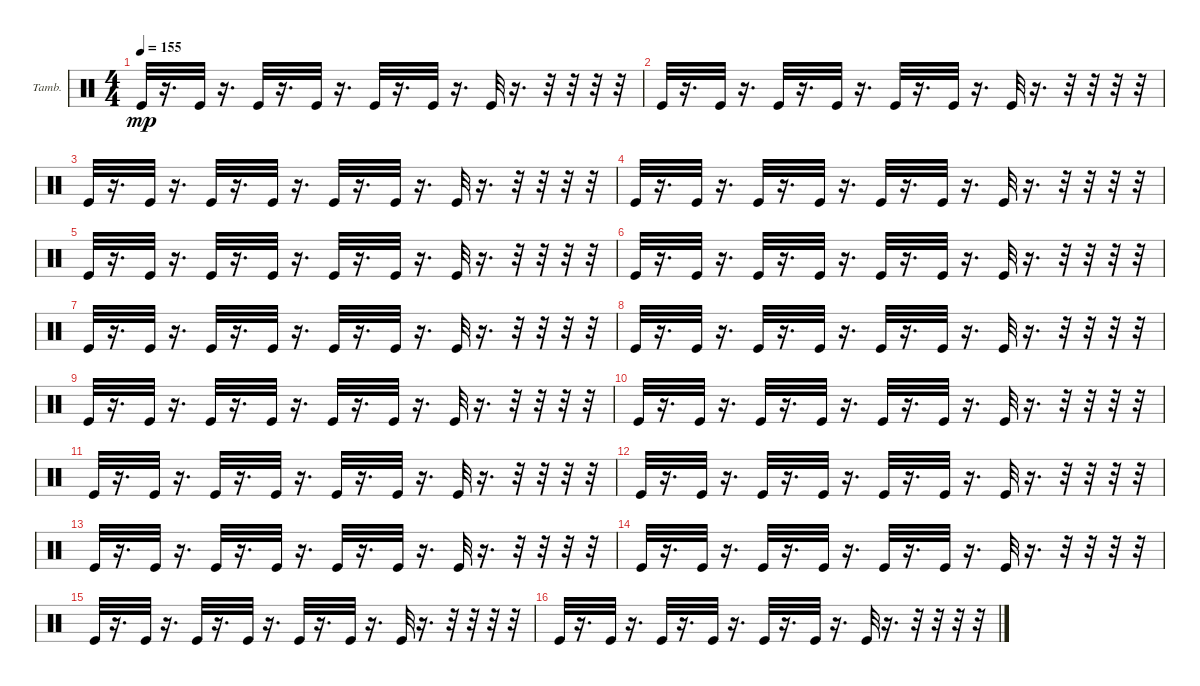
\bracketExtendMode groupsimilarinstruments
\firstSystemTrackNameOrientation horizontal
\otherSystemsTrackNameOrientation horizontal
\track ("Е. Кулаков" "Tamb.") {instrument percussion}
\staff {score}
\articulation defaults
\ts (4 4)
\tempo 155
\clef neutral
\ks c "Kick (hit)".32{dy mp}
r.16{d} "Kick (hit)".32 r.16{d} "Kick (hit)".32 r.16{d} "Kick (hit)".32 r.16{d} "Kick (hit)".32 r.16{d} "Kick (hit)".32 r.16{d} "Kick (hit)".32 r.16{d} r.32 r.32 r.32 r.32 |
"Kick (hit)".32 r.16{d} "Kick (hit)".32 r.16{d} "Kick (hit)".32 r.16{d} "Kick (hit)".32 r.16{d} "Kick (hit)".32 r.16{d} "Kick (hit)".32 r.16{d} "Kick (hit)".32 r.16{d} r.32 r.32 r.32 r.32 |
"Kick (hit)".32 r.16{d} "Kick (hit)".32 r.16{d} "Kick (hit)".32 r.16{d} "Kick (hit)".32 r.16{d} "Kick (hit)".32 r.16{d} "Kick (hit)".32 r.16{d} "Kick (hit)".32 r.16{d} r.32 r.32 r.32 r.32 |
"Kick (hit)".32 r.16{d} "Kick (hit)".32 r.16{d} "Kick (hit)".32 r.16{d} "Kick (hit)".32 r.16{d} "Kick (hit)".32 r.16{d} "Kick (hit)".32 r.16{d} "Kick (hit)".32 r.16{d} r.32 r.32 r.32 r.32 |
"Kick (hit)".32 r.16{d} "Kick (hit)".32 r.16{d} "Kick (hit)".32 r.16{d} "Kick (hit)".32 r.16{d} "Kick (hit)".32 r.16{d} "Kick (hit)".32 r.16{d} "Kick (hit)".32 r.16{d} r.32 r.32 r.32 r.32 |
"Kick (hit)".32 r.16{d} "Kick (hit)".32 r.16{d} "Kick (hit)".32 r.16{d} "Kick (hit)".32 r.16{d} "Kick (hit)".32 r.16{d} "Kick (hit)".32 r.16{d} "Kick (hit)".32 r.16{d} r.32 r.32 r.32 r.32 |
"Kick (hit)".32 r.16{d} "Kick (hit)".32 r.16{d} "Kick (hit)".32 r.16{d} "Kick (hit)".32 r.16{d} "Kick (hit)".32 r.16{d} "Kick (hit)".32 r.16{d} "Kick (hit)".32 r.16{d} r.32 r.32 r.32 r.32 |
"Kick (hit)".32 r.16{d} "Kick (hit)".32 r.16{d} "Kick (hit)".32 r.16{d} "Kick (hit)".32 r.16{d} "Kick (hit)".32 r.16{d} "Kick (hit)".32 r.16{d} "Kick (hit)".32 r.16{d} r.32 r.32 r.32 r.32 |
"Kick (hit)".32 r.16{d} "Kick (hit)".32 r.16{d} "Kick (hit)".32 r.16{d} "Kick (hit)".32 r.16{d} "Kick (hit)".32 r.16{d} "Kick (hit)".32 r.16{d} "Kick (hit)".32 r.16{d} r.32 r.32 r.32 r.32 |
"Kick (hit)".32 r.16{d} "Kick (hit)".32 r.16{d} "Kick (hit)".32 r.16{d} "Kick (hit)".32 r.16{d} "Kick (hit)".32 r.16{d} "Kick (hit)".32 r.16{d} "Kick (hit)".32 r.16{d} r.32 r.32 r.32 r.32 |
"Kick (hit)".32 r.16{d} "Kick (hit)".32 r.16{d} "Kick (hit)".32 r.16{d} "Kick (hit)".32 r.16{d} "Kick (hit)".32 r.16{d} "Kick (hit)".32 r.16{d} "Kick (hit)".32 r.16{d} r.32 r.32 r.32 r.32 |
"Kick (hit)".32 r.16{d} "Kick (hit)".32 r.16{d} "Kick (hit)".32 r.16{d} "Kick (hit)".32 r.16{d} "Kick (hit)".32 r.16{d} "Kick (hit)".32 r.16{d} "Kick (hit)".32 r.16{d} r.32 r.32 r.32 r.32 |
"Kick (hit)".32 r.16{d} "Kick (hit)".32 r.16{d} "Kick (hit)".32 r.16{d} "Kick (hit)".32 r.16{d} "Kick (hit)".32 r.16{d} "Kick (hit)".32 r.16{d} "Kick (hit)".32 r.16{d} r.32 r.32 r.32 r.32 |
"Kick (hit)".32 r.16{d} "Kick (hit)".32 r.16{d} "Kick (hit)".32 r.16{d} "Kick (hit)".32 r.16{d} "Kick (hit)".32 r.16{d} "Kick (hit)".32 r.16{d} "Kick (hit)".32 r.16{d} r.32 r.32 r.32 r.32 |
"Kick (hit)".32 r.16{d} "Kick (hit)".32 r.16{d} "Kick (hit)".32 r.16{d} "Kick (hit)".32 r.16{d} "Kick (hit)".32 r.16{d} "Kick (hit)".32 r.16{d} "Kick (hit)".32 r.16{d} r.32 r.32 r.32 r.32 |
"Kick (hit)".32 r.16{d} "Kick (hit)".32 r.16{d} "Kick (hit)".32 r.16{d} "Kick (hit)".32 r.16{d} "Kick (hit)".32 r.16{d} "Kick (hit)".32 r.16{d} "Kick (hit)".32 r.16{d} r.32 r.32 r.32 r.32
